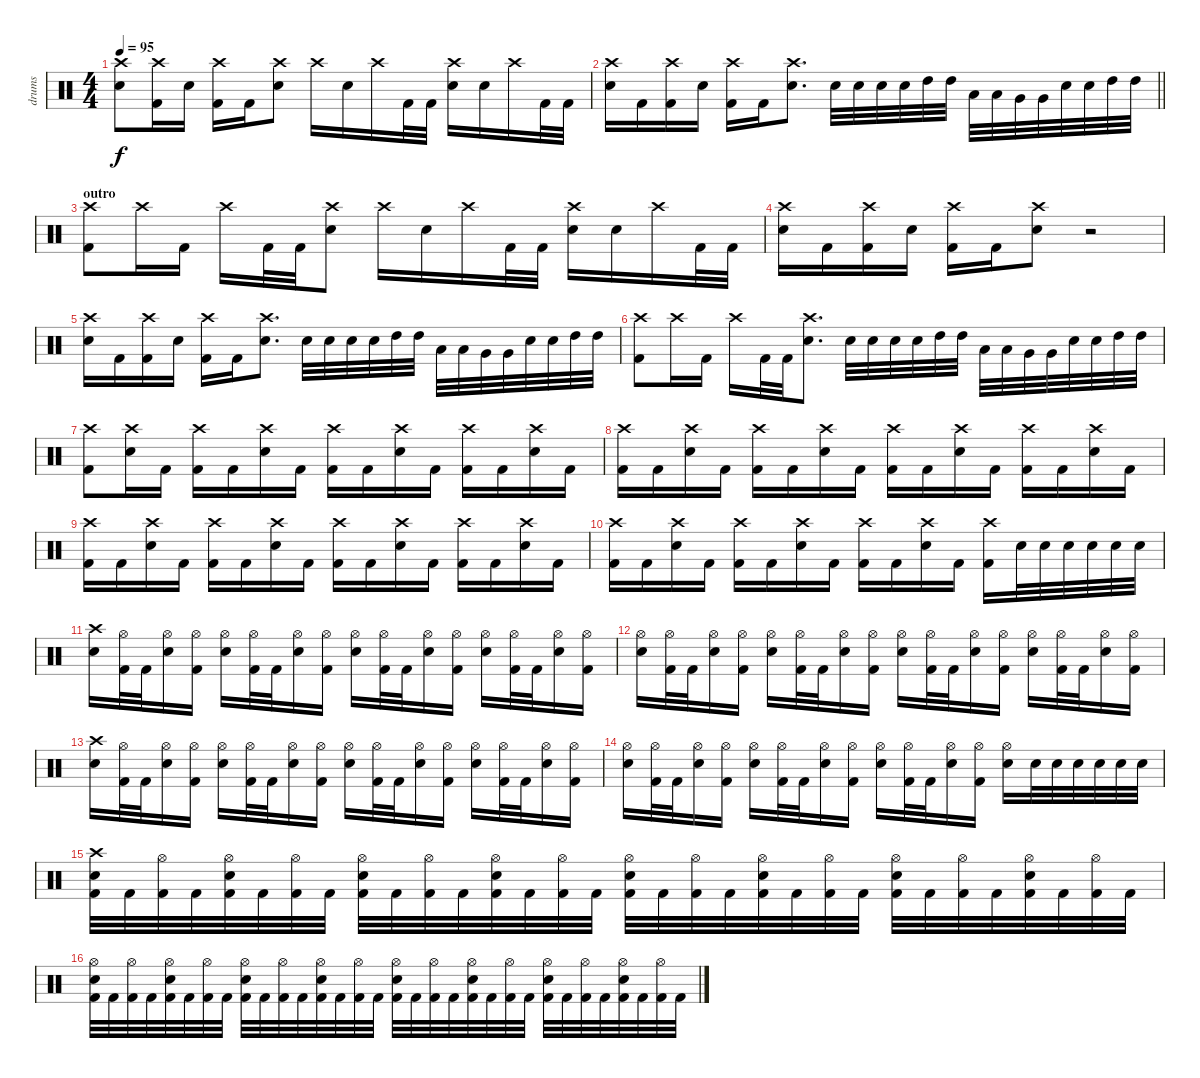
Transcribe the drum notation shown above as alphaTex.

\track ("drums" "drums") {instrument percussion}
\staff {score}
\articulation defaults
\ts (4 4)
\tempo 95
\clef neutral
\ks c
("Crash high (hit)" "Electric Snare (hit)").8{dy f} ("Crash high (hit)" "Kick (hit) 2").16 "Electric Snare (hit)".16 ("Crash high (hit)" "Kick (hit) 2").16 "Kick (hit) 2".16 ("Crash high (hit)" "Electric Snare (hit)").8 "Crash high (hit)".16 "Electric Snare (hit)".16 "Crash high (hit)".16 "Kick (hit) 2".32 "Kick (hit) 2".32 ("Crash high (hit)" "Electric Snare (hit)").16 "Electric Snare (hit)".16 "Crash high (hit)".16 "Kick (hit) 2".32 "Kick (hit) 2".32 |
\barLineRight lightlight
("Crash high (hit)" "Electric Snare (hit)").16 "Kick (hit) 2".16 ("Crash high (hit)" "Kick (hit) 2").16 "Electric Snare (hit)".16 ("Crash high (hit)" "Kick (hit) 2").16 "Kick (hit) 2".16 ("Crash high (hit)" "Electric Snare (hit)").8{d} "Electric Snare (hit)".32 "Electric Snare (hit)".32 "Electric Snare (hit)".32 "Electric Snare (hit)".32 "High Tom (hit)".32 "High Tom (hit)".32 "Low Tom (hit)".32 "Low Tom (hit)".32 "Very Low Tom (hit)".32 "Very Low Tom (hit)".32 "Electric Snare (hit)".32 "Electric Snare (hit)".32 "High Tom (hit)".32 "High Tom (hit)".32 |
\section ("" "outro")
("Crash high (hit)" "Kick (hit) 2").8 "Crash high (hit)".16 "Kick (hit) 2".16 "Crash high (hit)".16 "Kick (hit) 2".32 "Kick (hit) 2".32 ("Crash high (hit)" "Electric Snare (hit)").8 "Crash high (hit)".16 "Electric Snare (hit)".16 "Crash high (hit)".16 "Kick (hit) 2".32 "Kick (hit) 2".32 ("Crash high (hit)" "Electric Snare (hit)").16 "Electric Snare (hit)".16 "Crash high (hit)".16 "Kick (hit) 2".32 "Kick (hit) 2".32 |
("Crash high (hit)" "Electric Snare (hit)").16 "Kick (hit) 2".16 ("Crash high (hit)" "Kick (hit) 2").16 "Electric Snare (hit)".16 ("Crash high (hit)" "Kick (hit) 2").16 "Kick (hit) 2".16 ("Crash high (hit)" "Electric Snare (hit)").8 r.2 |
("Crash high (hit)" "Electric Snare (hit)").16 "Kick (hit) 2".16 ("Crash high (hit)" "Kick (hit) 2").16 "Electric Snare (hit)".16 ("Crash high (hit)" "Kick (hit) 2").16 "Kick (hit) 2".16 ("Crash high (hit)" "Electric Snare (hit)").8{d} "Electric Snare (hit)".32 "Electric Snare (hit)".32 "Electric Snare (hit)".32 "Electric Snare (hit)".32 "High Tom (hit)".32 "High Tom (hit)".32 "Low Tom (hit)".32 "Low Tom (hit)".32 "Very Low Tom (hit)".32 "Very Low Tom (hit)".32 "Electric Snare (hit)".32 "Electric Snare (hit)".32 "High Tom (hit)".32 "High Tom (hit)".32 |
("Crash high (hit)" "Kick (hit) 2").8 "Crash high (hit)".16 "Kick (hit) 2".16 "Crash high (hit)".16 "Kick (hit) 2".32 "Kick (hit) 2".32 ("Crash high (hit)" "Electric Snare (hit)").8{d} "Electric Snare (hit)".32 "Electric Snare (hit)".32 "Electric Snare (hit)".32 "Electric Snare (hit)".32 "High Tom (hit)".32 "High Tom (hit)".32 "Low Tom (hit)".32 "Low Tom (hit)".32 "Very Low Tom (hit)".32 "Very Low Tom (hit)".32 "Electric Snare (hit)".32 "Electric Snare (hit)".32 "High Tom (hit)".32 "High Tom (hit)".32 |
("Crash high (hit)" "Kick (hit) 2").8 ("Crash high (hit)" "Electric Snare (hit)").16 "Kick (hit) 2".16 ("Crash high (hit)" "Kick (hit) 2").16 "Kick (hit) 2".16 ("Crash high (hit)" "Electric Snare (hit)").16 "Kick (hit) 2".16 ("Crash high (hit)" "Kick (hit) 2").16 "Kick (hit) 2".16 ("Crash high (hit)" "Electric Snare (hit)").16 "Kick (hit) 2".16 ("Crash high (hit)" "Kick (hit) 2").16 "Kick (hit) 2".16 ("Crash high (hit)" "Electric Snare (hit)").16 "Kick (hit) 2".16 |
("Crash high (hit)" "Kick (hit) 2").16 "Kick (hit) 2".16 ("Crash high (hit)" "Electric Snare (hit)").16 "Kick (hit) 2".16 ("Crash high (hit)" "Kick (hit) 2").16 "Kick (hit) 2".16 ("Crash high (hit)" "Electric Snare (hit)").16 "Kick (hit) 2".16 ("Crash high (hit)" "Kick (hit) 2").16 "Kick (hit) 2".16 ("Crash high (hit)" "Electric Snare (hit)").16 "Kick (hit) 2".16 ("Crash high (hit)" "Kick (hit) 2").16 "Kick (hit) 2".16 ("Crash high (hit)" "Electric Snare (hit)").16 "Kick (hit) 2".16 |
("Crash high (hit)" "Kick (hit) 2").16 "Kick (hit) 2".16 ("Crash high (hit)" "Electric Snare (hit)").16 "Kick (hit) 2".16 ("Crash high (hit)" "Kick (hit) 2").16 "Kick (hit) 2".16 ("Crash high (hit)" "Electric Snare (hit)").16 "Kick (hit) 2".16 ("Crash high (hit)" "Kick (hit) 2").16 "Kick (hit) 2".16 ("Crash high (hit)" "Electric Snare (hit)").16 "Kick (hit) 2".16 ("Crash high (hit)" "Kick (hit) 2").16 "Kick (hit) 2".16 ("Crash high (hit)" "Electric Snare (hit)").16 "Kick (hit) 2".16 |
("Crash high (hit)" "Kick (hit) 2").16 "Kick (hit) 2".16 ("Crash high (hit)" "Electric Snare (hit)").16 "Kick (hit) 2".16 ("Crash high (hit)" "Kick (hit) 2").16 "Kick (hit) 2".16 ("Crash high (hit)" "Electric Snare (hit)").16 "Kick (hit) 2".16 ("Crash high (hit)" "Kick (hit) 2").16 "Kick (hit) 2".16 ("Crash high (hit)" "Electric Snare (hit)").16 "Kick (hit) 2".16 ("Crash high (hit)" "Kick (hit) 2").16 "Electric Snare (hit)".32 "Electric Snare (hit)".32 "Electric Snare (hit)".32 "Electric Snare (hit)".32 "Electric Snare (hit)".32 "Electric Snare (hit)".32 |
("Crash high (hit)" "Electric Snare (hit)").16 ("Hi-Hat (open)" "Kick (hit) 2").32 "Kick (hit) 2".32 ("Hi-Hat (open)" "Electric Snare (hit)").16 ("Hi-Hat (open)" "Kick (hit) 2").16 ("Hi-Hat (open)" "Electric Snare (hit)").16 ("Hi-Hat (open)" "Kick (hit) 2").32 "Kick (hit) 2".32 ("Hi-Hat (open)" "Electric Snare (hit)").16 ("Hi-Hat (open)" "Kick (hit) 2").16 ("Hi-Hat (open)" "Electric Snare (hit)").16 ("Hi-Hat (open)" "Kick (hit) 2").32 "Kick (hit) 2".32 ("Hi-Hat (open)" "Electric Snare (hit)").16 ("Hi-Hat (open)" "Kick (hit) 2").16 ("Hi-Hat (open)" "Electric Snare (hit)").16 ("Hi-Hat (open)" "Kick (hit) 2").32 "Kick (hit) 2".32 ("Hi-Hat (open)" "Electric Snare (hit)").16 ("Hi-Hat (open)" "Kick (hit) 2").16 |
("Hi-Hat (open)" "Electric Snare (hit)").16 ("Hi-Hat (open)" "Kick (hit) 2").32 "Kick (hit) 2".32 ("Hi-Hat (open)" "Electric Snare (hit)").16 ("Hi-Hat (open)" "Kick (hit) 2").16 ("Hi-Hat (open)" "Electric Snare (hit)").16 ("Hi-Hat (open)" "Kick (hit) 2").32 "Kick (hit) 2".32 ("Hi-Hat (open)" "Electric Snare (hit)").16 ("Hi-Hat (open)" "Kick (hit) 2").16 ("Hi-Hat (open)" "Electric Snare (hit)").16 ("Hi-Hat (open)" "Kick (hit) 2").32 "Kick (hit) 2".32 ("Hi-Hat (open)" "Electric Snare (hit)").16 ("Hi-Hat (open)" "Kick (hit) 2").16 ("Hi-Hat (open)" "Electric Snare (hit)").16 ("Hi-Hat (open)" "Kick (hit) 2").32 "Kick (hit) 2".32 ("Hi-Hat (open)" "Electric Snare (hit)").16 ("Hi-Hat (open)" "Kick (hit) 2").16 |
("Crash high (hit)" "Electric Snare (hit)").16 ("Hi-Hat (open)" "Kick (hit) 2").32 "Kick (hit) 2".32 ("Hi-Hat (open)" "Electric Snare (hit)").16 ("Hi-Hat (open)" "Kick (hit) 2").16 ("Hi-Hat (open)" "Electric Snare (hit)").16 ("Hi-Hat (open)" "Kick (hit) 2").32 "Kick (hit) 2".32 ("Hi-Hat (open)" "Electric Snare (hit)").16 ("Hi-Hat (open)" "Kick (hit) 2").16 ("Hi-Hat (open)" "Electric Snare (hit)").16 ("Hi-Hat (open)" "Kick (hit) 2").32 "Kick (hit) 2".32 ("Hi-Hat (open)" "Electric Snare (hit)").16 ("Hi-Hat (open)" "Kick (hit) 2").16 ("Hi-Hat (open)" "Electric Snare (hit)").16 ("Hi-Hat (open)" "Kick (hit) 2").32 "Kick (hit) 2".32 ("Hi-Hat (open)" "Electric Snare (hit)").16 ("Hi-Hat (open)" "Kick (hit) 2").16 |
("Hi-Hat (open)" "Electric Snare (hit)").16 ("Hi-Hat (open)" "Kick (hit) 2").32 "Kick (hit) 2".32 ("Hi-Hat (open)" "Electric Snare (hit)").16 ("Hi-Hat (open)" "Kick (hit) 2").16 ("Hi-Hat (open)" "Electric Snare (hit)").16 ("Hi-Hat (open)" "Kick (hit) 2").32 "Kick (hit) 2".32 ("Hi-Hat (open)" "Electric Snare (hit)").16 ("Hi-Hat (open)" "Kick (hit) 2").16 ("Hi-Hat (open)" "Electric Snare (hit)").16 ("Hi-Hat (open)" "Kick (hit) 2").32 "Kick (hit) 2".32 ("Hi-Hat (open)" "Electric Snare (hit)").16 ("Hi-Hat (open)" "Kick (hit) 2").16 ("Hi-Hat (open)" "Electric Snare (hit)").16 "Electric Snare (hit)".32 "Electric Snare (hit)".32 "Electric Snare (hit)".32 "Electric Snare (hit)".32 "Electric Snare (hit)".32 "Electric Snare (hit)".32 |
("Crash high (hit)" "Electric Snare (hit)" "Kick (hit) 2").32 "Kick (hit) 2".32 ("Hi-Hat (open)" "Kick (hit) 2").32 "Kick (hit) 2".32 ("Hi-Hat (open)" "Electric Snare (hit)" "Kick (hit) 2").32 "Kick (hit) 2".32 ("Hi-Hat (open)" "Kick (hit) 2").32 "Kick (hit) 2".32 ("Hi-Hat (open)" "Electric Snare (hit)" "Kick (hit) 2").32 "Kick (hit) 2".32 ("Hi-Hat (open)" "Kick (hit) 2").32 "Kick (hit) 2".32 ("Hi-Hat (open)" "Electric Snare (hit)" "Kick (hit) 2").32 "Kick (hit) 2".32 ("Hi-Hat (open)" "Kick (hit) 2").32 "Kick (hit) 2".32 ("Hi-Hat (open)" "Electric Snare (hit)" "Kick (hit) 2").32 "Kick (hit) 2".32 ("Hi-Hat (open)" "Kick (hit) 2").32 "Kick (hit) 2".32 ("Hi-Hat (open)" "Electric Snare (hit)" "Kick (hit) 2").32 "Kick (hit) 2".32 ("Hi-Hat (open)" "Kick (hit) 2").32 "Kick (hit) 2".32 ("Hi-Hat (open)" "Electric Snare (hit)" "Kick (hit) 2").32 "Kick (hit) 2".32 ("Hi-Hat (open)" "Kick (hit) 2").32 "Kick (hit) 2".32 ("Hi-Hat (open)" "Electric Snare (hit)" "Kick (hit) 2").32 "Kick (hit) 2".32 ("Hi-Hat (open)" "Kick (hit) 2").32 "Kick (hit) 2".32 |
("Hi-Hat (open)" "Electric Snare (hit)" "Kick (hit) 2").32 "Kick (hit) 2".32 ("Hi-Hat (open)" "Kick (hit) 2").32 "Kick (hit) 2".32 ("Hi-Hat (open)" "Electric Snare (hit)" "Kick (hit) 2").32 "Kick (hit) 2".32 ("Hi-Hat (open)" "Kick (hit) 2").32 "Kick (hit) 2".32 ("Hi-Hat (open)" "Electric Snare (hit)" "Kick (hit) 2").32 "Kick (hit) 2".32 ("Hi-Hat (open)" "Kick (hit) 2").32 "Kick (hit) 2".32 ("Hi-Hat (open)" "Electric Snare (hit)" "Kick (hit) 2").32 "Kick (hit) 2".32 ("Hi-Hat (open)" "Kick (hit) 2").32 "Kick (hit) 2".32 ("Hi-Hat (open)" "Electric Snare (hit)" "Kick (hit) 2").32 "Kick (hit) 2".32 ("Hi-Hat (open)" "Kick (hit) 2").32 "Kick (hit) 2".32 ("Hi-Hat (open)" "Electric Snare (hit)" "Kick (hit) 2").32 "Kick (hit) 2".32 ("Hi-Hat (open)" "Kick (hit) 2").32 "Kick (hit) 2".32 ("Hi-Hat (open)" "Electric Snare (hit)" "Kick (hit) 2").32 "Kick (hit) 2".32 ("Hi-Hat (open)" "Kick (hit) 2").32 "Kick (hit) 2".32 ("Hi-Hat (open)" "Electric Snare (hit)" "Kick (hit) 2").32 "Kick (hit) 2".32 ("Hi-Hat (open)" "Kick (hit) 2").32 "Kick (hit) 2".32
